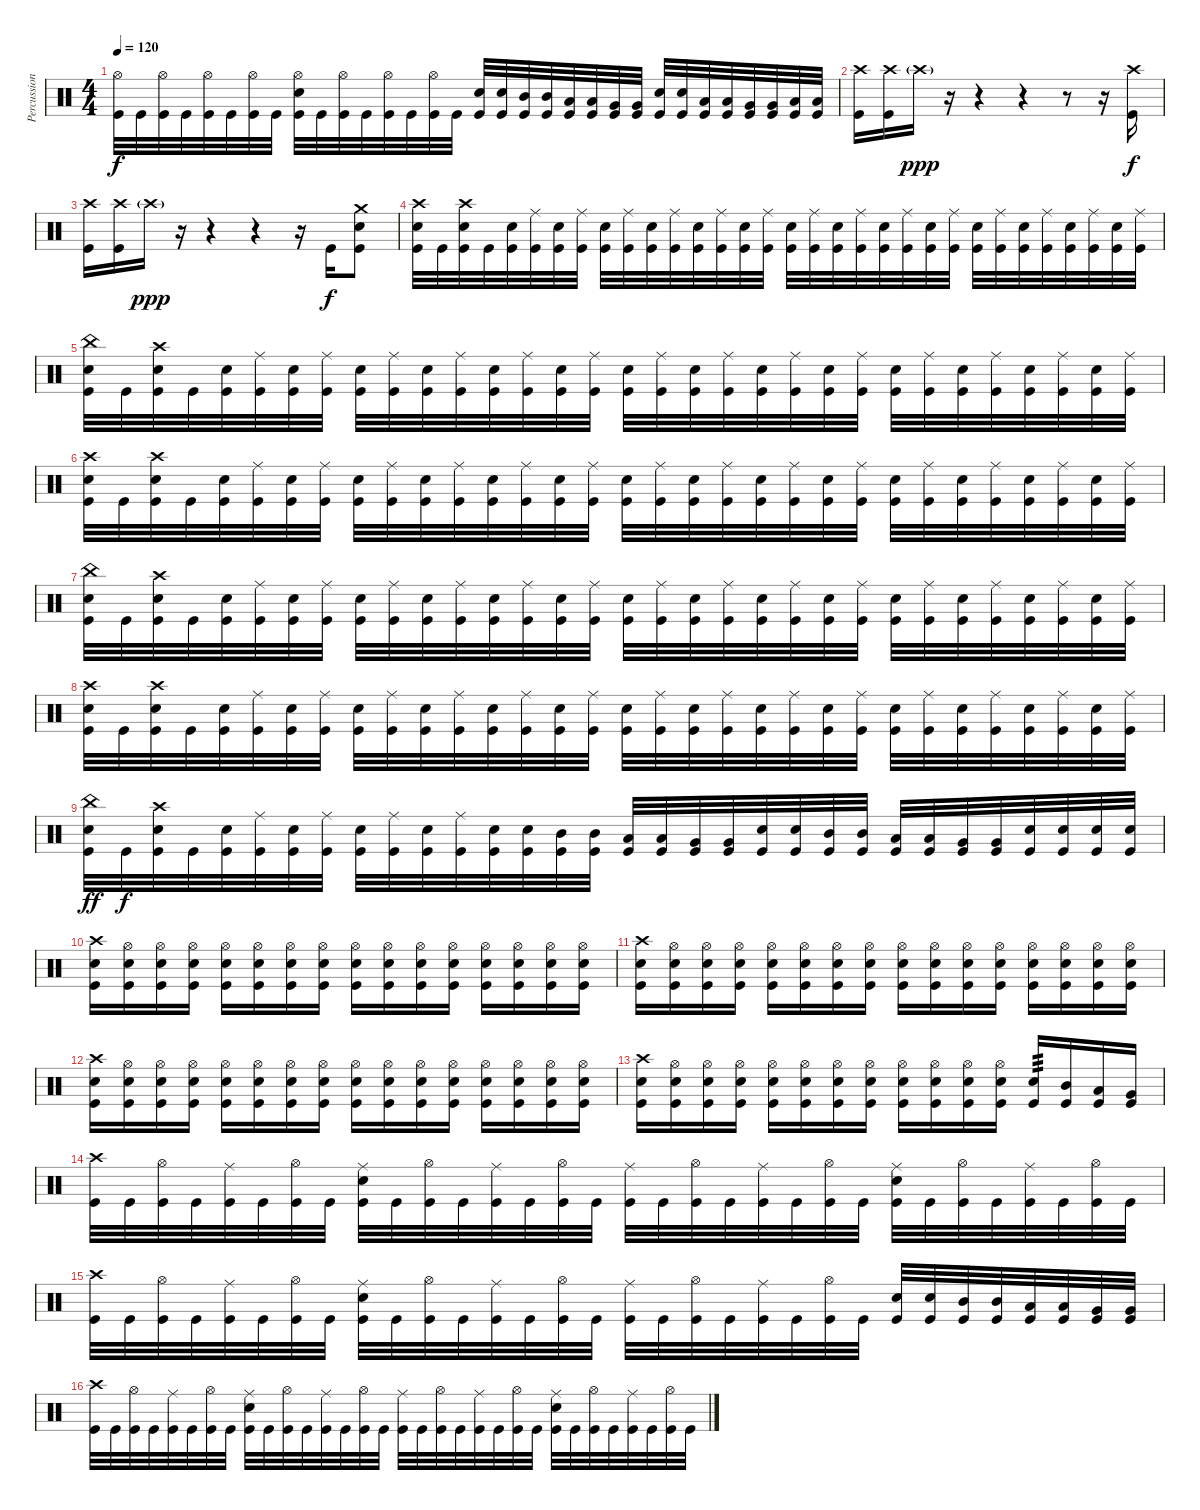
\track ("Percussion" "Percussion") {instrument percussion}
\staff {score}
\articulation defaults
\ts (4 4)
\tempo 120
\clef neutral
\ks c
("Hi-Hat (open)" "Kick (hit)").32{dy f} "Kick (hit)".32 ("Hi-Hat (open)" "Kick (hit)").32 "Kick (hit)".32 ("Hi-Hat (open)" "Kick (hit)").32 "Kick (hit)".32 ("Hi-Hat (open)" "Kick (hit)").32 "Kick (hit)".32 ("Hi-Hat (open)" "Electric Snare (hit)" "Kick (hit)").32 "Kick (hit)".32 ("Hi-Hat (open)" "Kick (hit)").32 "Kick (hit)".32 ("Hi-Hat (open)" "Kick (hit)").32 "Kick (hit)".32 ("Hi-Hat (open)" "Kick (hit)").32 "Kick (hit)".32 ("Electric Snare (hit)" "Kick (hit)").32 ("Electric Snare (hit)" "Kick (hit)").32 ("Mid Tom (hit)" "Kick (hit)").32 ("Mid Tom (hit)" "Kick (hit)").32 ("Low Tom (hit)" "Kick (hit)").32 ("Low Tom (hit)" "Kick (hit)").32 ("Very Low Tom (hit)" "Kick (hit)").32 ("Very Low Tom (hit)" "Kick (hit)").32 ("Electric Snare (hit)" "Kick (hit)").32 ("Electric Snare (hit)" "Kick (hit)").32 ("Low Tom (hit)" "Kick (hit)").32 ("Low Tom (hit)" "Kick (hit)").32 ("Very Low Tom (hit)" "Kick (hit)").32 ("Very Low Tom (hit)" "Kick (hit)").32 ("Low Floor Tom (hit)" "Kick (hit)").32 ("Low Floor Tom (hit)" "Kick (hit)").32 |
("Crash high (hit)" "Kick (hit)").16 ("Crash high (hit)" "Kick (hit)").16 "Crash high (hit)"{g}.16{dy ppp} r.16 r.4 r.4 r.8 r.16 ("Crash high (hit)" "Kick (hit)").16{dy f} |
("Crash high (hit)" "Kick (hit)").16 ("Crash high (hit)" "Kick (hit)").16 "Crash high (hit)"{g}.16{dy ppp} r.16 r.4 r.4 r.16 "Kick (hit)".16{dy f} ("Crash medium (hit)" "Electric Snare (hit)" "Kick (hit)").8 |
("Crash high (hit)" "Electric Snare (hit)" "Kick (hit)").32 "Kick (hit)".32 ("Crash high (hit)" "Electric Snare (hit)" "Kick (hit)").32 "Kick (hit)".32 ("Electric Snare (hit)" "Kick (hit)").32 ("Ride (middle)" "Kick (hit)").32 ("Electric Snare (hit)" "Kick (hit)").32 ("Ride (middle)" "Kick (hit)").32 ("Electric Snare (hit)" "Kick (hit)").32 ("Ride (middle)" "Kick (hit)").32 ("Electric Snare (hit)" "Kick (hit)").32 ("Ride (middle)" "Kick (hit)").32 ("Electric Snare (hit)" "Kick (hit)").32 ("Ride (middle)" "Kick (hit)").32 ("Electric Snare (hit)" "Kick (hit)").32 ("Ride (middle)" "Kick (hit)").32 ("Electric Snare (hit)" "Kick (hit)").32 ("Ride (middle)" "Kick (hit)").32 ("Electric Snare (hit)" "Kick (hit)").32 ("Ride (middle)" "Kick (hit)").32 ("Electric Snare (hit)" "Kick (hit)").32 ("Ride (middle)" "Kick (hit)").32 ("Electric Snare (hit)" "Kick (hit)").32 ("Ride (middle)" "Kick (hit)").32 ("Electric Snare (hit)" "Kick (hit)").32 ("Ride (middle)" "Kick (hit)").32 ("Electric Snare (hit)" "Kick (hit)").32 ("Ride (middle)" "Kick (hit)").32 ("Electric Snare (hit)" "Kick (hit)").32 ("Ride (middle)" "Kick (hit)").32 ("Electric Snare (hit)" "Kick (hit)").32 ("Ride (middle)" "Kick (hit)").32 |
("China (hit)" "Electric Snare (hit)" "Kick (hit)").32 "Kick (hit)".32 ("Crash high (hit)" "Electric Snare (hit)" "Kick (hit)").32 "Kick (hit)".32 ("Electric Snare (hit)" "Kick (hit)").32 ("Ride (middle)" "Kick (hit)").32 ("Electric Snare (hit)" "Kick (hit)").32 ("Ride (middle)" "Kick (hit)").32 ("Electric Snare (hit)" "Kick (hit)").32 ("Ride (middle)" "Kick (hit)").32 ("Electric Snare (hit)" "Kick (hit)").32 ("Ride (middle)" "Kick (hit)").32 ("Electric Snare (hit)" "Kick (hit)").32 ("Ride (middle)" "Kick (hit)").32 ("Electric Snare (hit)" "Kick (hit)").32 ("Ride (middle)" "Kick (hit)").32 ("Electric Snare (hit)" "Kick (hit)").32 ("Ride (middle)" "Kick (hit)").32 ("Electric Snare (hit)" "Kick (hit)").32 ("Ride (middle)" "Kick (hit)").32 ("Electric Snare (hit)" "Kick (hit)").32 ("Ride (middle)" "Kick (hit)").32 ("Electric Snare (hit)" "Kick (hit)").32 ("Ride (middle)" "Kick (hit)").32 ("Electric Snare (hit)" "Kick (hit)").32 ("Ride (middle)" "Kick (hit)").32 ("Electric Snare (hit)" "Kick (hit)").32 ("Ride (middle)" "Kick (hit)").32 ("Electric Snare (hit)" "Kick (hit)").32 ("Ride (middle)" "Kick (hit)").32 ("Electric Snare (hit)" "Kick (hit)").32 ("Ride (middle)" "Kick (hit)").32 |
("Crash high (hit)" "Electric Snare (hit)" "Kick (hit)").32 "Kick (hit)".32 ("Crash high (hit)" "Electric Snare (hit)" "Kick (hit)").32 "Kick (hit)".32 ("Electric Snare (hit)" "Kick (hit)").32 ("Ride (middle)" "Kick (hit)").32 ("Electric Snare (hit)" "Kick (hit)").32 ("Ride (middle)" "Kick (hit)").32 ("Electric Snare (hit)" "Kick (hit)").32 ("Ride (middle)" "Kick (hit)").32 ("Electric Snare (hit)" "Kick (hit)").32 ("Ride (middle)" "Kick (hit)").32 ("Electric Snare (hit)" "Kick (hit)").32 ("Ride (middle)" "Kick (hit)").32 ("Electric Snare (hit)" "Kick (hit)").32 ("Ride (middle)" "Kick (hit)").32 ("Electric Snare (hit)" "Kick (hit)").32 ("Ride (middle)" "Kick (hit)").32 ("Electric Snare (hit)" "Kick (hit)").32 ("Ride (middle)" "Kick (hit)").32 ("Electric Snare (hit)" "Kick (hit)").32 ("Ride (middle)" "Kick (hit)").32 ("Electric Snare (hit)" "Kick (hit)").32 ("Ride (middle)" "Kick (hit)").32 ("Electric Snare (hit)" "Kick (hit)").32 ("Ride (middle)" "Kick (hit)").32 ("Electric Snare (hit)" "Kick (hit)").32 ("Ride (middle)" "Kick (hit)").32 ("Electric Snare (hit)" "Kick (hit)").32 ("Ride (middle)" "Kick (hit)").32 ("Electric Snare (hit)" "Kick (hit)").32 ("Ride (middle)" "Kick (hit)").32 |
("China (hit)" "Electric Snare (hit)" "Kick (hit)").32 "Kick (hit)".32 ("Crash high (hit)" "Electric Snare (hit)" "Kick (hit)").32 "Kick (hit)".32 ("Electric Snare (hit)" "Kick (hit)").32 ("Ride (middle)" "Kick (hit)").32 ("Electric Snare (hit)" "Kick (hit)").32 ("Ride (middle)" "Kick (hit)").32 ("Electric Snare (hit)" "Kick (hit)").32 ("Ride (middle)" "Kick (hit)").32 ("Electric Snare (hit)" "Kick (hit)").32 ("Ride (middle)" "Kick (hit)").32 ("Electric Snare (hit)" "Kick (hit)").32 ("Ride (middle)" "Kick (hit)").32 ("Electric Snare (hit)" "Kick (hit)").32 ("Ride (middle)" "Kick (hit)").32 ("Electric Snare (hit)" "Kick (hit)").32 ("Ride (middle)" "Kick (hit)").32 ("Electric Snare (hit)" "Kick (hit)").32 ("Ride (middle)" "Kick (hit)").32 ("Electric Snare (hit)" "Kick (hit)").32 ("Ride (middle)" "Kick (hit)").32 ("Electric Snare (hit)" "Kick (hit)").32 ("Ride (middle)" "Kick (hit)").32 ("Electric Snare (hit)" "Kick (hit)").32 ("Ride (middle)" "Kick (hit)").32 ("Electric Snare (hit)" "Kick (hit)").32 ("Ride (middle)" "Kick (hit)").32 ("Electric Snare (hit)" "Kick (hit)").32 ("Ride (middle)" "Kick (hit)").32 ("Electric Snare (hit)" "Kick (hit)").32 ("Ride (middle)" "Kick (hit)").32 |
("Crash high (hit)" "Electric Snare (hit)" "Kick (hit)").32 "Kick (hit)".32 ("Crash high (hit)" "Electric Snare (hit)" "Kick (hit)").32 "Kick (hit)".32 ("Electric Snare (hit)" "Kick (hit)").32 ("Ride (middle)" "Kick (hit)").32 ("Electric Snare (hit)" "Kick (hit)").32 ("Ride (middle)" "Kick (hit)").32 ("Electric Snare (hit)" "Kick (hit)").32 ("Ride (middle)" "Kick (hit)").32 ("Electric Snare (hit)" "Kick (hit)").32 ("Ride (middle)" "Kick (hit)").32 ("Electric Snare (hit)" "Kick (hit)").32 ("Ride (middle)" "Kick (hit)").32 ("Electric Snare (hit)" "Kick (hit)").32 ("Ride (middle)" "Kick (hit)").32 ("Electric Snare (hit)" "Kick (hit)").32 ("Ride (middle)" "Kick (hit)").32 ("Electric Snare (hit)" "Kick (hit)").32 ("Ride (middle)" "Kick (hit)").32 ("Electric Snare (hit)" "Kick (hit)").32 ("Ride (middle)" "Kick (hit)").32 ("Electric Snare (hit)" "Kick (hit)").32 ("Ride (middle)" "Kick (hit)").32 ("Electric Snare (hit)" "Kick (hit)").32 ("Ride (middle)" "Kick (hit)").32 ("Electric Snare (hit)" "Kick (hit)").32 ("Ride (middle)" "Kick (hit)").32 ("Electric Snare (hit)" "Kick (hit)").32 ("Ride (middle)" "Kick (hit)").32 ("Electric Snare (hit)" "Kick (hit)").32 ("Ride (middle)" "Kick (hit)").32 |
("China (hit)" "Electric Snare (hit)" "Kick (hit)").32{dy ff} "Kick (hit)".32{dy f} ("Crash high (hit)" "Electric Snare (hit)" "Kick (hit)").32 "Kick (hit)".32 ("Electric Snare (hit)" "Kick (hit)").32 ("Ride (middle)" "Kick (hit)").32 ("Electric Snare (hit)" "Kick (hit)").32 ("Ride (middle)" "Kick (hit)").32 ("Electric Snare (hit)" "Kick (hit)").32 ("Ride (middle)" "Kick (hit)").32 ("Electric Snare (hit)" "Kick (hit)").32 ("Ride (middle)" "Kick (hit)").32 ("Electric Snare (hit)" "Kick (hit)").32 ("Electric Snare (hit)" "Kick (hit)").32 ("Mid Tom (hit)" "Kick (hit)").32 ("Mid Tom (hit)" "Kick (hit)").32 ("Low Tom (hit)" "Kick (hit)").32 ("Low Tom (hit)" "Kick (hit)").32 ("Very Low Tom (hit)" "Kick (hit)").32 ("Very Low Tom (hit)" "Kick (hit)").32 ("Electric Snare (hit)" "Kick (hit)").32 ("Electric Snare (hit)" "Kick (hit)").32 ("Mid Tom (hit)" "Kick (hit)").32 ("Mid Tom (hit)" "Kick (hit)").32 ("Low Tom (hit)" "Kick (hit)").32 ("Low Tom (hit)" "Kick (hit)").32 ("Very Low Tom (hit)" "Kick (hit)").32 ("Very Low Tom (hit)" "Kick (hit)").32 ("Electric Snare (hit)" "Kick (hit)").32 ("Electric Snare (hit)" "Kick (hit)").32 ("Electric Snare (hit)" "Kick (hit)").32 ("Electric Snare (hit)" "Kick (hit)").32 |
("Crash high (hit)" "Electric Snare (hit)" "Kick (hit)").16 ("Hi-Hat (open)" "Electric Snare (hit)" "Kick (hit)").16 ("Hi-Hat (open)" "Electric Snare (hit)" "Kick (hit)").16 ("Hi-Hat (open)" "Electric Snare (hit)" "Kick (hit)").16 ("Hi-Hat (open)" "Electric Snare (hit)" "Kick (hit)").16 ("Hi-Hat (open)" "Electric Snare (hit)" "Kick (hit)").16 ("Hi-Hat (open)" "Electric Snare (hit)" "Kick (hit)").16 ("Hi-Hat (open)" "Electric Snare (hit)" "Kick (hit)").16 ("Hi-Hat (open)" "Electric Snare (hit)" "Kick (hit)").16 ("Hi-Hat (open)" "Electric Snare (hit)" "Kick (hit)").16 ("Hi-Hat (open)" "Electric Snare (hit)" "Kick (hit)").16 ("Hi-Hat (open)" "Electric Snare (hit)" "Kick (hit)").16 ("Hi-Hat (open)" "Electric Snare (hit)" "Kick (hit)").16 ("Hi-Hat (open)" "Electric Snare (hit)" "Kick (hit)").16 ("Hi-Hat (open)" "Electric Snare (hit)" "Kick (hit)").16 ("Hi-Hat (open)" "Electric Snare (hit)" "Kick (hit)").16 |
("Crash high (hit)" "Electric Snare (hit)" "Kick (hit)").16 ("Hi-Hat (open)" "Electric Snare (hit)" "Kick (hit)").16 ("Hi-Hat (open)" "Electric Snare (hit)" "Kick (hit)").16 ("Hi-Hat (open)" "Electric Snare (hit)" "Kick (hit)").16 ("Hi-Hat (open)" "Electric Snare (hit)" "Kick (hit)").16 ("Hi-Hat (open)" "Electric Snare (hit)" "Kick (hit)").16 ("Hi-Hat (open)" "Electric Snare (hit)" "Kick (hit)").16 ("Hi-Hat (open)" "Electric Snare (hit)" "Kick (hit)").16 ("Hi-Hat (open)" "Electric Snare (hit)" "Kick (hit)").16 ("Hi-Hat (open)" "Electric Snare (hit)" "Kick (hit)").16 ("Hi-Hat (open)" "Electric Snare (hit)" "Kick (hit)").16 ("Hi-Hat (open)" "Electric Snare (hit)" "Kick (hit)").16 ("Hi-Hat (open)" "Electric Snare (hit)" "Kick (hit)").16 ("Hi-Hat (open)" "Electric Snare (hit)" "Kick (hit)").16 ("Hi-Hat (open)" "Electric Snare (hit)" "Kick (hit)").16 ("Hi-Hat (open)" "Electric Snare (hit)" "Kick (hit)").16 |
("Crash high (hit)" "Electric Snare (hit)" "Kick (hit)").16 ("Hi-Hat (open)" "Electric Snare (hit)" "Kick (hit)").16 ("Hi-Hat (open)" "Electric Snare (hit)" "Kick (hit)").16 ("Hi-Hat (open)" "Electric Snare (hit)" "Kick (hit)").16 ("Hi-Hat (open)" "Electric Snare (hit)" "Kick (hit)").16 ("Hi-Hat (open)" "Electric Snare (hit)" "Kick (hit)").16 ("Hi-Hat (open)" "Electric Snare (hit)" "Kick (hit)").16 ("Hi-Hat (open)" "Electric Snare (hit)" "Kick (hit)").16 ("Hi-Hat (open)" "Electric Snare (hit)" "Kick (hit)").16 ("Hi-Hat (open)" "Electric Snare (hit)" "Kick (hit)").16 ("Hi-Hat (open)" "Electric Snare (hit)" "Kick (hit)").16 ("Hi-Hat (open)" "Electric Snare (hit)" "Kick (hit)").16 ("Hi-Hat (open)" "Electric Snare (hit)" "Kick (hit)").16 ("Hi-Hat (open)" "Electric Snare (hit)" "Kick (hit)").16 ("Hi-Hat (open)" "Electric Snare (hit)" "Kick (hit)").16 ("Hi-Hat (open)" "Electric Snare (hit)" "Kick (hit)").16 |
("Crash high (hit)" "Electric Snare (hit)" "Kick (hit)").16 ("Hi-Hat (open)" "Electric Snare (hit)" "Kick (hit)").16 ("Hi-Hat (open)" "Electric Snare (hit)" "Kick (hit)").16 ("Hi-Hat (open)" "Electric Snare (hit)" "Kick (hit)").16 ("Hi-Hat (open)" "Electric Snare (hit)" "Kick (hit)").16 ("Hi-Hat (open)" "Electric Snare (hit)" "Kick (hit)").16 ("Hi-Hat (open)" "Electric Snare (hit)" "Kick (hit)").16 ("Hi-Hat (open)" "Electric Snare (hit)" "Kick (hit)").16 ("Hi-Hat (open)" "Electric Snare (hit)" "Kick (hit)").16 ("Hi-Hat (open)" "Electric Snare (hit)" "Kick (hit)").16 ("Hi-Hat (open)" "Electric Snare (hit)" "Kick (hit)").16 ("Hi-Hat (open)" "Electric Snare (hit)" "Kick (hit)").16 ("Electric Snare (hit)" "Kick (hit)").16{tp 3} ("Mid Tom (hit)" "Kick (hit)").16 ("Low Tom (hit)" "Kick (hit)").16 ("Very Low Tom (hit)" "Kick (hit)").16 |
("Crash high (hit)" "Kick (hit)").32 "Kick (hit)".32 ("Hi-Hat (open)" "Kick (hit)").32 "Kick (hit)".32 ("Ride (middle)" "Kick (hit)").32 "Kick (hit)".32 ("Hi-Hat (open)" "Kick (hit)").32 "Kick (hit)".32 ("Ride (middle)" "Electric Snare (hit)" "Kick (hit)").32 "Kick (hit)".32 ("Hi-Hat (open)" "Kick (hit)").32 "Kick (hit)".32 ("Ride (middle)" "Kick (hit)").32 "Kick (hit)".32 ("Hi-Hat (open)" "Kick (hit)").32 "Kick (hit)".32 ("Ride (middle)" "Kick (hit)").32 "Kick (hit)".32 ("Hi-Hat (open)" "Kick (hit)").32 "Kick (hit)".32 ("Ride (middle)" "Kick (hit)").32 "Kick (hit)".32 ("Hi-Hat (open)" "Kick (hit)").32 "Kick (hit)".32 ("Ride (middle)" "Electric Snare (hit)" "Kick (hit)").32 "Kick (hit)".32 ("Hi-Hat (open)" "Kick (hit)").32 "Kick (hit)".32 ("Ride (middle)" "Kick (hit)").32 "Kick (hit)".32 ("Hi-Hat (open)" "Kick (hit)").32 "Kick (hit)".32 |
("Crash high (hit)" "Kick (hit)").32 "Kick (hit)".32 ("Hi-Hat (open)" "Kick (hit)").32 "Kick (hit)".32 ("Ride (middle)" "Kick (hit)").32 "Kick (hit)".32 ("Hi-Hat (open)" "Kick (hit)").32 "Kick (hit)".32 ("Ride (middle)" "Electric Snare (hit)" "Kick (hit)").32 "Kick (hit)".32 ("Hi-Hat (open)" "Kick (hit)").32 "Kick (hit)".32 ("Ride (middle)" "Kick (hit)").32 "Kick (hit)".32 ("Hi-Hat (open)" "Kick (hit)").32 "Kick (hit)".32 ("Ride (middle)" "Kick (hit)").32 "Kick (hit)".32 ("Hi-Hat (open)" "Kick (hit)").32 "Kick (hit)".32 ("Ride (middle)" "Kick (hit)").32 "Kick (hit)".32 ("Hi-Hat (open)" "Kick (hit)").32 "Kick (hit)".32 ("Electric Snare (hit)" "Kick (hit)").32 ("Electric Snare (hit)" "Kick (hit)").32 ("Mid Tom (hit)" "Kick (hit)").32 ("Mid Tom (hit)" "Kick (hit)").32 ("Low Tom (hit)" "Kick (hit)").32 ("Low Tom (hit)" "Kick (hit)").32 ("Very Low Tom (hit)" "Kick (hit)").32 ("Very Low Tom (hit)" "Kick (hit)").32 |
("Crash high (hit)" "Kick (hit)").32 "Kick (hit)".32 ("Hi-Hat (open)" "Kick (hit)").32 "Kick (hit)".32 ("Ride (middle)" "Kick (hit)").32 "Kick (hit)".32 ("Hi-Hat (open)" "Kick (hit)").32 "Kick (hit)".32 ("Ride (middle)" "Electric Snare (hit)" "Kick (hit)").32 "Kick (hit)".32 ("Hi-Hat (open)" "Kick (hit)").32 "Kick (hit)".32 ("Ride (middle)" "Kick (hit)").32 "Kick (hit)".32 ("Hi-Hat (open)" "Kick (hit)").32 "Kick (hit)".32 ("Ride (middle)" "Kick (hit)").32 "Kick (hit)".32 ("Hi-Hat (open)" "Kick (hit)").32 "Kick (hit)".32 ("Ride (middle)" "Kick (hit)").32 "Kick (hit)".32 ("Hi-Hat (open)" "Kick (hit)").32 "Kick (hit)".32 ("Ride (middle)" "Electric Snare (hit)" "Kick (hit)").32 "Kick (hit)".32 ("Hi-Hat (open)" "Kick (hit)").32 "Kick (hit)".32 ("Ride (middle)" "Kick (hit)").32 "Kick (hit)".32 ("Hi-Hat (open)" "Kick (hit)").32 "Kick (hit)".32
